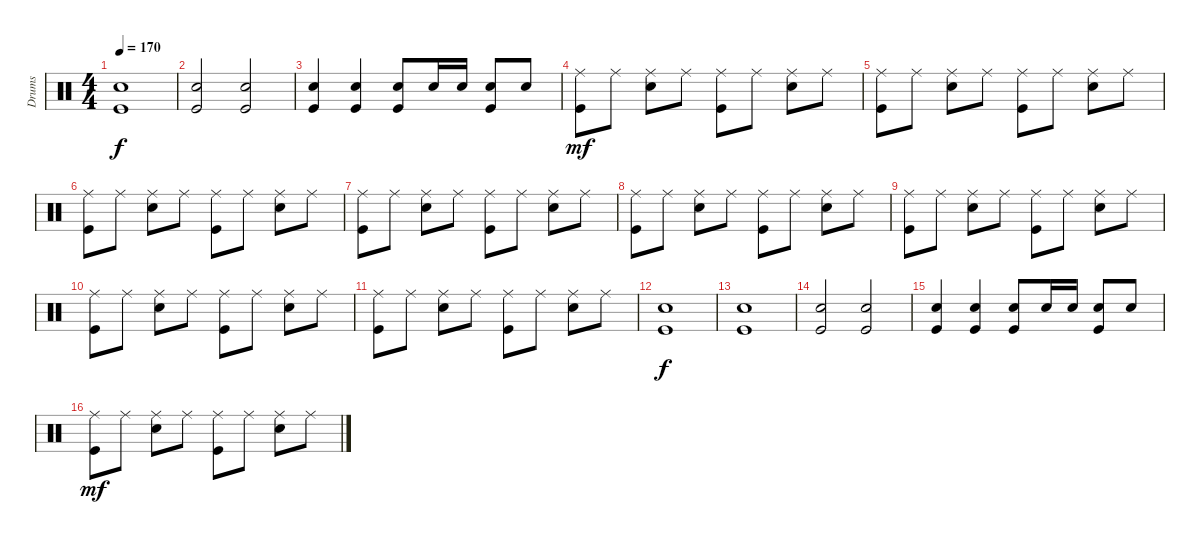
\track ("Drums" "Drums") {instrument percussion}
\staff {score}
\articulation defaults
\ts (4 4)
\tempo 170
\clef neutral
\ks c
("Snare (hit) 2" "Kick (hit)").1{dy f} |
("Snare (hit) 2" "Kick (hit)").2 ("Snare (hit) 2" "Kick (hit)").2 |
("Snare (hit) 2" "Kick (hit)").4 ("Snare (hit) 2" "Kick (hit)").4 ("Snare (hit) 2" "Kick (hit)").8 "Snare (hit) 2".16 "Snare (hit) 2".16 ("Snare (hit) 2" "Kick (hit)").8 "Snare (hit) 2".8 |
("Ride (middle)" "Kick (hit)").8{dy mf} "Ride (middle)".8 ("Ride (middle)" "Snare (hit) 2").8 "Ride (middle)".8 ("Ride (middle)" "Kick (hit)").8 "Ride (middle)".8 ("Ride (middle)" "Snare (hit) 2").8 "Ride (middle)".8 |
("Ride (middle)" "Kick (hit)").8 "Ride (middle)".8 ("Ride (middle)" "Snare (hit) 2").8 "Ride (middle)".8 ("Ride (middle)" "Kick (hit)").8 "Ride (middle)".8 ("Ride (middle)" "Snare (hit) 2").8 "Ride (middle)".8 |
("Ride (middle)" "Kick (hit)").8 "Ride (middle)".8 ("Ride (middle)" "Snare (hit) 2").8 "Ride (middle)".8 ("Ride (middle)" "Kick (hit)").8 "Ride (middle)".8 ("Ride (middle)" "Snare (hit) 2").8 "Ride (middle)".8 |
("Ride (middle)" "Kick (hit)").8 "Ride (middle)".8 ("Ride (middle)" "Snare (hit) 2").8 "Ride (middle)".8 ("Ride (middle)" "Kick (hit)").8 "Ride (middle)".8 ("Ride (middle)" "Snare (hit) 2").8 "Ride (middle)".8 |
("Ride (middle)" "Kick (hit)").8 "Ride (middle)".8 ("Ride (middle)" "Snare (hit) 2").8 "Ride (middle)".8 ("Ride (middle)" "Kick (hit)").8 "Ride (middle)".8 ("Ride (middle)" "Snare (hit) 2").8 "Ride (middle)".8 |
("Ride (middle)" "Kick (hit)").8 "Ride (middle)".8 ("Ride (middle)" "Snare (hit) 2").8 "Ride (middle)".8 ("Ride (middle)" "Kick (hit)").8 "Ride (middle)".8 ("Ride (middle)" "Snare (hit) 2").8 "Ride (middle)".8 |
("Ride (middle)" "Kick (hit)").8 "Ride (middle)".8 ("Ride (middle)" "Snare (hit) 2").8 "Ride (middle)".8 ("Ride (middle)" "Kick (hit)").8 "Ride (middle)".8 ("Ride (middle)" "Snare (hit) 2").8 "Ride (middle)".8 |
("Ride (middle)" "Kick (hit)").8 "Ride (middle)".8 ("Ride (middle)" "Snare (hit) 2").8 "Ride (middle)".8 ("Ride (middle)" "Kick (hit)").8 "Ride (middle)".8 ("Ride (middle)" "Snare (hit) 2").8 "Ride (middle)".8 |
("Snare (hit) 2" "Kick (hit)").1{dy f} |
("Snare (hit) 2" "Kick (hit)").1 |
("Snare (hit) 2" "Kick (hit)").2 ("Snare (hit) 2" "Kick (hit)").2 |
("Snare (hit) 2" "Kick (hit)").4 ("Snare (hit) 2" "Kick (hit)").4 ("Snare (hit) 2" "Kick (hit)").8 "Snare (hit) 2".16 "Snare (hit) 2".16 ("Snare (hit) 2" "Kick (hit)").8 "Snare (hit) 2".8 |
("Ride (middle)" "Kick (hit)").8{dy mf} "Ride (middle)".8 ("Ride (middle)" "Snare (hit) 2").8 "Ride (middle)".8 ("Ride (middle)" "Kick (hit)").8 "Ride (middle)".8 ("Ride (middle)" "Snare (hit) 2").8 "Ride (middle)".8
